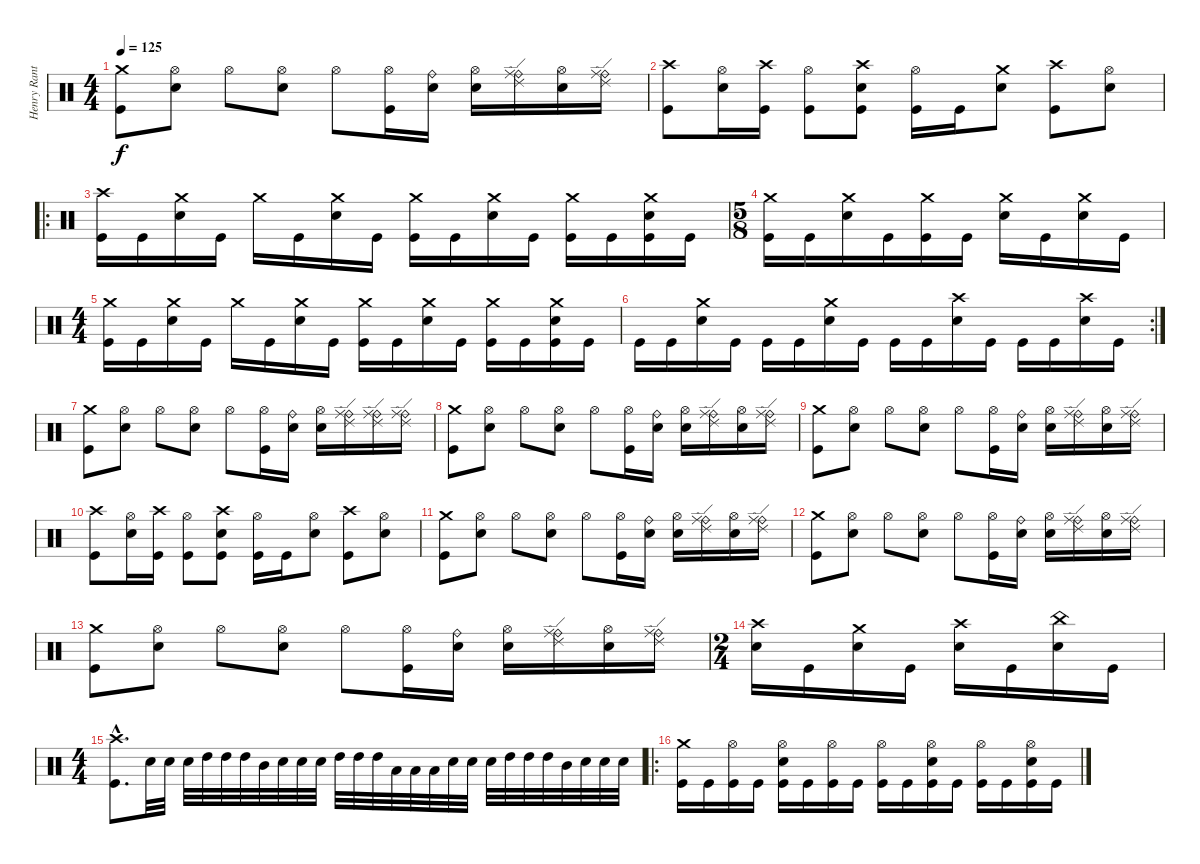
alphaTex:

\track ("Henry Ranta" "Henry Rant") {instrument percussion}
\staff {score}
\articulation defaults
\ts (4 4)
\tempo 125
\clef neutral
\ks c
("Crash medium (hit)" "Kick (hit)").8{dy f} ("Hi-Hat (open)" "Electric Snare (hit)").8 "Hi-Hat (open)".8 ("Hi-Hat (open)" "Electric Snare (hit)").8 "Hi-Hat (open)".8 ("Hi-Hat (open)" "Kick (hit)").16 ("Ride (bell)" "Electric Snare (hit)").16 ("Hi-Hat (open)" "Electric Snare (hit)").16 ("Ride (edge) 2" "Ride (bell)" "Ride (middle)").16 ("Hi-Hat (open)" "Electric Snare (hit)").16 ("Ride (edge) 2" "Ride (bell)" "Ride (middle)").16 |
("Crash high (hit)" "Kick (hit)").8 ("Hi-Hat (open)" "Electric Snare (hit)").16 ("Crash high (hit)" "Kick (hit)").16 ("Hi-Hat (open)" "Kick (hit)").8 ("Crash high (hit)" "Electric Snare (hit)" "Kick (hit)").8 ("Hi-Hat (open)" "Kick (hit)").16 "Kick (hit)".16 ("Crash medium (hit)" "Electric Snare (hit)").8 ("Crash high (hit)" "Kick (hit)").8 ("Hi-Hat (open)" "Electric Snare (hit)").8 |
\ro
("Crash high (hit)" "Kick (hit)").16 "Kick (hit)".16 ("Crash medium (hit)" "Electric Snare (hit)").16 "Kick (hit)".16 "Crash medium (hit)".16 "Kick (hit)".16 ("Crash medium (hit)" "Electric Snare (hit)").16 "Kick (hit)".16 ("Crash medium (hit)" "Kick (hit)").16 "Kick (hit)".16 ("Crash medium (hit)" "Electric Snare (hit)").16 "Kick (hit)".16 ("Crash medium (hit)" "Kick (hit)").16 "Kick (hit)".16 ("Crash medium (hit)" "Electric Snare (hit)" "Kick (hit)").16 "Kick (hit)".16 |
\ts (5 8)
("Crash medium (hit)" "Kick (hit)").16 "Kick (hit)".16 ("Crash medium (hit)" "Electric Snare (hit)").16 "Kick (hit)".16 ("Crash medium (hit)" "Kick (hit)").16 "Kick (hit)".16 ("Crash medium (hit)" "Electric Snare (hit)").16 "Kick (hit)".16 ("Crash medium (hit)" "Electric Snare (hit)").16 "Kick (hit)".16 |
\ts (4 4)
("Crash medium (hit)" "Kick (hit)").16 "Kick (hit)".16 ("Crash medium (hit)" "Electric Snare (hit)").16 "Kick (hit)".16 "Crash medium (hit)".16 "Kick (hit)".16 ("Crash medium (hit)" "Electric Snare (hit)").16 "Kick (hit)".16 ("Crash medium (hit)" "Kick (hit)").16 "Kick (hit)".16 ("Crash medium (hit)" "Electric Snare (hit)").16 "Kick (hit)".16 ("Crash medium (hit)" "Kick (hit)").16 "Kick (hit)".16 ("Crash medium (hit)" "Electric Snare (hit)" "Kick (hit)").16 "Kick (hit)".16 |
\rc 2 "Kick (hit)".16 "Kick (hit)".16
("Crash medium (hit)" "Electric Snare (hit)").16 "Kick (hit)".16 "Kick (hit)".16 "Kick (hit)".16 ("Crash medium (hit)" "Electric Snare (hit)").16 "Kick (hit)".16 "Kick (hit)".16 "Kick (hit)".16 ("Crash high (hit)" "Electric Snare (hit)").16 "Kick (hit)".16 "Kick (hit)".16 "Kick (hit)".16 ("Crash high (hit)" "Electric Snare (hit)").16 "Kick (hit)".16 |
("Crash medium (hit)" "Kick (hit)").8 ("Hi-Hat (open)" "Electric Snare (hit)").8 "Hi-Hat (open)".8 ("Hi-Hat (open)" "Electric Snare (hit)").8 "Hi-Hat (open)".8 ("Hi-Hat (open)" "Kick (hit)").16 ("Ride (bell)" "Electric Snare (hit)").16 ("Hi-Hat (open)" "Electric Snare (hit)").16 ("Ride (edge) 2" "Ride (bell)" "Ride (middle)").16 ("Ride (edge) 2" "Ride (bell)" "Ride (middle)").16 ("Ride (edge) 2" "Ride (bell)" "Ride (middle)").16 |
("Crash medium (hit)" "Kick (hit)").8 ("Hi-Hat (open)" "Electric Snare (hit)").8 "Hi-Hat (open)".8 ("Hi-Hat (open)" "Electric Snare (hit)").8 "Hi-Hat (open)".8 ("Hi-Hat (open)" "Kick (hit)").16 ("Ride (bell)" "Electric Snare (hit)").16 ("Hi-Hat (open)" "Electric Snare (hit)").16 ("Ride (edge) 2" "Ride (bell)" "Ride (middle)").16 ("Hi-Hat (open)" "Electric Snare (hit)").16 ("Ride (edge) 2" "Ride (bell)" "Ride (middle)").16 |
("Crash medium (hit)" "Kick (hit)").8 ("Hi-Hat (open)" "Electric Snare (hit)").8 "Hi-Hat (open)".8 ("Hi-Hat (open)" "Electric Snare (hit)").8 "Hi-Hat (open)".8 ("Hi-Hat (open)" "Kick (hit)").16 ("Ride (bell)" "Electric Snare (hit)").16 ("Hi-Hat (open)" "Electric Snare (hit)").16 ("Ride (edge) 2" "Ride (bell)" "Ride (middle)").16 ("Hi-Hat (open)" "Electric Snare (hit)").16 ("Ride (edge) 2" "Ride (bell)" "Ride (middle)").16 |
("Crash high (hit)" "Kick (hit)").8 ("Hi-Hat (open)" "Electric Snare (hit)").16 ("Crash high (hit)" "Kick (hit)").16 ("Hi-Hat (open)" "Kick (hit)").8 ("Crash high (hit)" "Electric Snare (hit)" "Kick (hit)").8 ("Hi-Hat (open)" "Kick (hit)").16 "Kick (hit)".16 ("Hi-Hat (open)" "Electric Snare (hit)").8 ("Crash high (hit)" "Kick (hit)").8 ("Hi-Hat (open)" "Electric Snare (hit)").8 |
("Crash medium (hit)" "Kick (hit)").8 ("Hi-Hat (open)" "Electric Snare (hit)").8 "Hi-Hat (open)".8 ("Hi-Hat (open)" "Electric Snare (hit)").8 "Hi-Hat (open)".8 ("Hi-Hat (open)" "Kick (hit)").16 ("Ride (bell)" "Electric Snare (hit)").16 ("Hi-Hat (open)" "Electric Snare (hit)").16 ("Ride (edge) 2" "Ride (bell)" "Ride (middle)").16 ("Hi-Hat (open)" "Electric Snare (hit)").16 ("Ride (edge) 2" "Ride (bell)" "Ride (middle)").16 |
("Crash medium (hit)" "Kick (hit)").8 ("Hi-Hat (open)" "Electric Snare (hit)").8 "Hi-Hat (open)".8 ("Hi-Hat (open)" "Electric Snare (hit)").8 "Hi-Hat (open)".8 ("Hi-Hat (open)" "Kick (hit)").16 ("Ride (bell)" "Electric Snare (hit)").16 ("Hi-Hat (open)" "Electric Snare (hit)").16 ("Ride (edge) 2" "Ride (bell)" "Ride (middle)").16 ("Hi-Hat (open)" "Electric Snare (hit)").16 ("Ride (edge) 2" "Ride (bell)" "Ride (middle)").16 |
("Crash medium (hit)" "Kick (hit)").8 ("Hi-Hat (open)" "Electric Snare (hit)").8 "Hi-Hat (open)".8 ("Hi-Hat (open)" "Electric Snare (hit)").8 "Hi-Hat (open)".8 ("Hi-Hat (open)" "Kick (hit)").16 ("Ride (bell)" "Electric Snare (hit)").16 ("Hi-Hat (open)" "Electric Snare (hit)").16 ("Ride (edge) 2" "Ride (bell)" "Ride (middle)").16 ("Hi-Hat (open)" "Electric Snare (hit)").16 ("Ride (edge) 2" "Ride (bell)" "Ride (middle)").16 |
\ts (2 4)
("Crash high (hit)" "Electric Snare (hit)").16 "Kick (hit)".16 ("Crash medium (hit)" "Electric Snare (hit)").16 "Kick (hit)".16 ("Crash high (hit)" "Electric Snare (hit)").16 "Kick (hit)".16 ("China (hit)" "Electric Snare (hit)").16 "Kick (hit)".16 |
\ts (4 4)
("Crash high (hit)"{hac} "Kick (hit)"{hac}).8{d} "Electric Snare (hit)".32 "Electric Snare (hit)".32 "Electric Snare (hit)".32 "High Tom (hit)".32 "High Tom (hit)".32 "High Tom (hit)".32 "Mid Tom (hit)".32 "Electric Snare (hit)".32 "Electric Snare (hit)".32 "Electric Snare (hit)".32 "High Tom (hit)".32 "High Tom (hit)".32 "High Tom (hit)".32 "Low Tom (hit)".32 "Low Tom (hit)".32 "Low Tom (hit)".32 "Electric Snare (hit)".32 "Electric Snare (hit)".32 "Electric Snare (hit)".32 "High Tom (hit)".32 "High Tom (hit)".32 "High Tom (hit)".32 "Mid Tom (hit)".32 "Electric Snare (hit)".32 "Electric Snare (hit)".32 "Electric Snare (hit)".32 |
\ro
("Crash medium (hit)" "Kick (hit)").16 "Kick (hit)".16 ("Hi-Hat (open)" "Kick (hit)").16 "Kick (hit)".16 ("Hi-Hat (open)" "Electric Snare (hit)" "Kick (hit)").16 "Kick (hit)".16 ("Hi-Hat (open)" "Kick (hit)").16 "Kick (hit)".16 ("Hi-Hat (open)" "Kick (hit)").16 "Kick (hit)".16 ("Hi-Hat (open)" "Electric Snare (hit)" "Kick (hit)").16 "Kick (hit)".16 ("Hi-Hat (open)" "Kick (hit)").16 "Kick (hit)".16 ("Hi-Hat (open)" "Electric Snare (hit)" "Kick (hit)").16 "Kick (hit)".16
